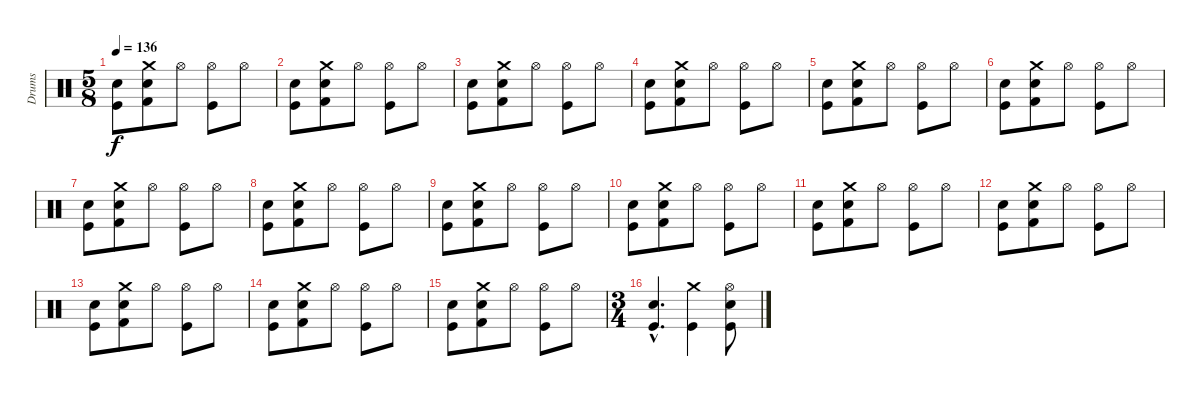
\track ("Drums" "Drums") {instrument percussion}
\staff {score}
\articulation defaults
\ts (5 8)
\tempo 136
\clef neutral
\ks c
("Electric Snare (hit)" "Kick (hit)").8{dy f} ("Crash medium (hit)" "Electric Snare (hit)" "Kick (hit) 2").8 "Hi-Hat (open)".8 ("Hi-Hat (open)" "Kick (hit)").8 "Hi-Hat (open)".8 |
("Electric Snare (hit)" "Kick (hit)").8 ("Crash medium (hit)" "Electric Snare (hit)" "Kick (hit) 2").8 "Hi-Hat (open)".8 ("Hi-Hat (open)" "Kick (hit)").8 "Hi-Hat (open)".8 |
("Electric Snare (hit)" "Kick (hit)").8 ("Crash medium (hit)" "Electric Snare (hit)" "Kick (hit) 2").8 "Hi-Hat (open)".8 ("Hi-Hat (open)" "Kick (hit)").8 "Hi-Hat (open)".8 |
("Electric Snare (hit)" "Kick (hit)").8 ("Crash medium (hit)" "Electric Snare (hit)" "Kick (hit) 2").8 "Hi-Hat (open)".8 ("Hi-Hat (open)" "Kick (hit)").8 "Hi-Hat (open)".8 |
("Electric Snare (hit)" "Kick (hit)").8 ("Crash medium (hit)" "Electric Snare (hit)" "Kick (hit) 2").8 "Hi-Hat (open)".8 ("Hi-Hat (open)" "Kick (hit)").8 "Hi-Hat (open)".8 |
("Electric Snare (hit)" "Kick (hit)").8 ("Crash medium (hit)" "Electric Snare (hit)" "Kick (hit) 2").8 "Hi-Hat (open)".8 ("Hi-Hat (open)" "Kick (hit)").8 "Hi-Hat (open)".8 |
("Electric Snare (hit)" "Kick (hit)").8 ("Crash medium (hit)" "Electric Snare (hit)" "Kick (hit) 2").8 "Hi-Hat (open)".8 ("Hi-Hat (open)" "Kick (hit)").8 "Hi-Hat (open)".8 |
("Electric Snare (hit)" "Kick (hit)").8 ("Crash medium (hit)" "Electric Snare (hit)" "Kick (hit) 2").8 "Hi-Hat (open)".8 ("Hi-Hat (open)" "Kick (hit)").8 "Hi-Hat (open)".8 |
("Electric Snare (hit)" "Kick (hit)").8 ("Crash medium (hit)" "Electric Snare (hit)" "Kick (hit) 2").8 "Hi-Hat (open)".8 ("Hi-Hat (open)" "Kick (hit)").8 "Hi-Hat (open)".8 |
("Electric Snare (hit)" "Kick (hit)").8 ("Crash medium (hit)" "Electric Snare (hit)" "Kick (hit) 2").8 "Hi-Hat (open)".8 ("Hi-Hat (open)" "Kick (hit)").8 "Hi-Hat (open)".8 |
("Electric Snare (hit)" "Kick (hit)").8 ("Crash medium (hit)" "Electric Snare (hit)" "Kick (hit) 2").8 "Hi-Hat (open)".8 ("Hi-Hat (open)" "Kick (hit)").8 "Hi-Hat (open)".8 |
("Electric Snare (hit)" "Kick (hit)").8 ("Crash medium (hit)" "Electric Snare (hit)" "Kick (hit) 2").8 "Hi-Hat (open)".8 ("Hi-Hat (open)" "Kick (hit)").8 "Hi-Hat (open)".8 |
("Electric Snare (hit)" "Kick (hit)").8 ("Crash medium (hit)" "Electric Snare (hit)" "Kick (hit) 2").8 "Hi-Hat (open)".8 ("Hi-Hat (open)" "Kick (hit)").8 "Hi-Hat (open)".8 |
("Electric Snare (hit)" "Kick (hit)").8 ("Crash medium (hit)" "Electric Snare (hit)" "Kick (hit) 2").8 "Hi-Hat (open)".8 ("Hi-Hat (open)" "Kick (hit)").8 "Hi-Hat (open)".8 |
("Electric Snare (hit)" "Kick (hit)").8 ("Crash medium (hit)" "Electric Snare (hit)" "Kick (hit) 2").8 "Hi-Hat (open)".8 ("Hi-Hat (open)" "Kick (hit)").8 "Hi-Hat (open)".8 |
\ts (3 4)
("Electric Snare (hit)"{hac} "Kick (hit)"{hac}).4{d} ("Crash medium (hit)" "Kick (hit)").4 ("Hi-Hat (open)" "Electric Snare (hit)" "Kick (hit)").8
